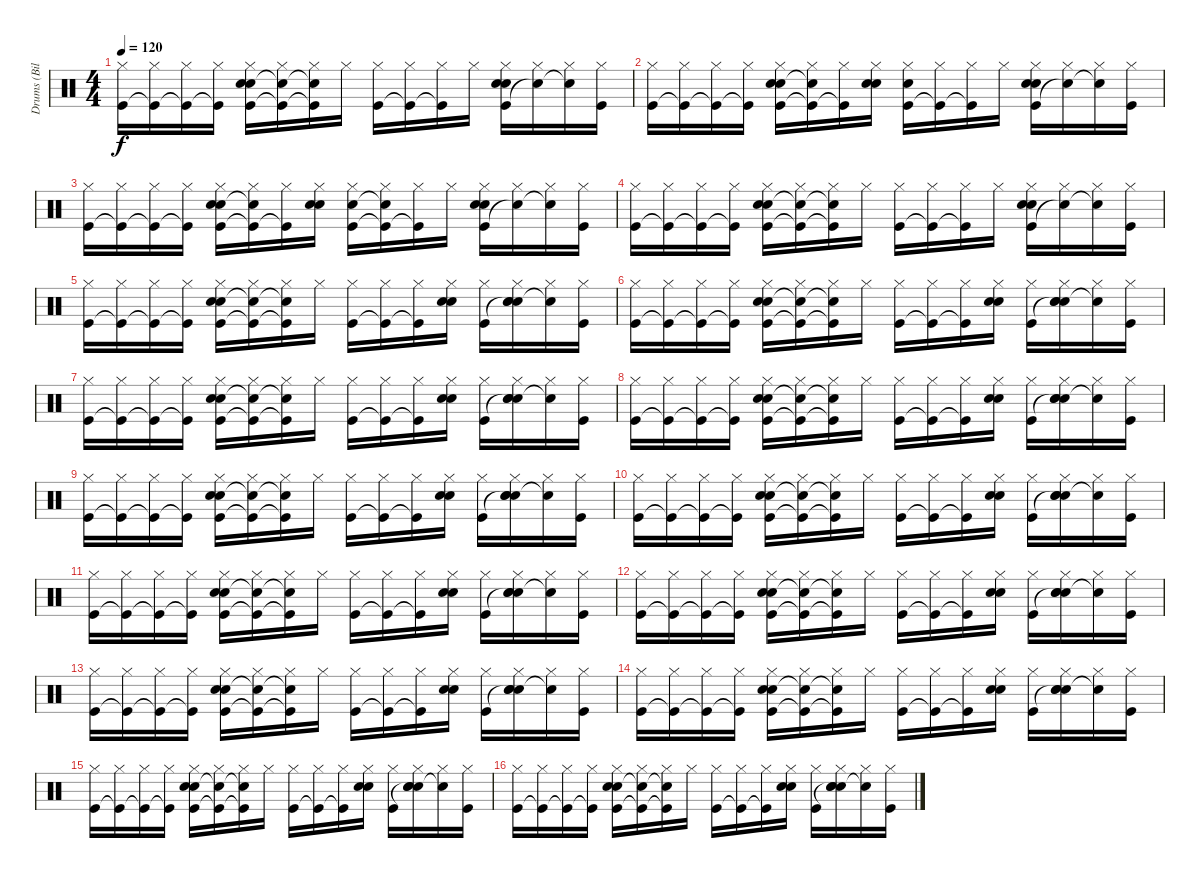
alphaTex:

\track ("Drums (Bilerman)" "Drums (Bil") {instrument percussion}
\staff {score}
\articulation defaults
\ts (4 4)
\tempo 120
\clef neutral
\ks c
("Kick (hit)" "Hi-Hat (closed)").16{dy f} ("Kick (hit)"{t} "Hi-Hat (closed)").16 ("Kick (hit)"{t} "Hi-Hat (closed)").16 ("Kick (hit)"{t} "Hi-Hat (closed)").16 ("Kick (hit)" "Snare (hit) 2" "Snare (hit) 2" "Hi-Hat (closed)").16 ("Kick (hit)"{t} "Snare (hit) 2"{t} "Hi-Hat (closed)").16 ("Kick (hit)"{t} "Snare (hit) 2"{t} "Hi-Hat (closed)").16 "Hi-Hat (closed)".16 ("Kick (hit)" "Hi-Hat (closed)").16 ("Kick (hit)"{t} "Hi-Hat (closed)").16 ("Kick (hit)"{t} "Hi-Hat (closed)").16 "Hi-Hat (closed)".16 ("Kick (hit)" "Snare (hit) 2" "Snare (hit) 2" "Hi-Hat (closed)").16 ("Snare (hit)"{t} "Hi-Hat (closed)").16 ("Snare (hit) 2"{t} "Hi-Hat (closed)").16 ("Kick (hit)" "Hi-Hat (closed)").16 |
("Kick (hit)" "Hi-Hat (closed)").16 ("Kick (hit)"{t} "Hi-Hat (closed)").16 ("Kick (hit)"{t} "Hi-Hat (closed)").16 ("Kick (hit)"{t} "Hi-Hat (closed)").16 ("Kick (hit)" "Snare (hit) 2" "Snare (hit) 2" "Hi-Hat (closed)").16 ("Kick (hit)"{t} "Snare (hit) 2"{t} "Hi-Hat (closed)").16 ("Kick (hit)"{t} "Hi-Hat (closed)").16 ("Snare (hit) 2" "Snare (hit) 2" "Hi-Hat (closed)").16 ("Kick (hit)" "Snare (hit) 2" "Hi-Hat (closed)").16 ("Kick (hit)"{t} "Hi-Hat (closed)").16 ("Kick (hit)"{t} "Hi-Hat (closed)").16 "Hi-Hat (closed)".16 ("Kick (hit)" "Snare (hit) 2" "Snare (hit) 2" "Hi-Hat (closed)").16 ("Snare (hit)"{t} "Hi-Hat (closed)").16 ("Snare (hit) 2"{t} "Hi-Hat (closed)").16 ("Kick (hit)" "Hi-Hat (closed)").16 |
("Kick (hit)" "Hi-Hat (closed)").16 ("Kick (hit)"{t} "Hi-Hat (closed)").16 ("Kick (hit)"{t} "Hi-Hat (closed)").16 ("Kick (hit)"{t} "Hi-Hat (closed)").16 ("Kick (hit)" "Snare (hit) 2" "Snare (hit) 2" "Hi-Hat (closed)").16 ("Kick (hit)"{t} "Snare (hit) 2"{t} "Hi-Hat (closed)").16 ("Kick (hit)"{t} "Hi-Hat (closed)").16 ("Snare (hit) 2" "Snare (hit) 2" "Hi-Hat (closed)").16 ("Kick (hit)" "Snare (hit) 2" "Hi-Hat (closed)").16 ("Kick (hit)"{t} "Snare (hit)"{t} "Hi-Hat (closed)").16 ("Kick (hit)"{t} "Hi-Hat (closed)").16 "Hi-Hat (closed)".16 ("Kick (hit)" "Snare (hit) 2" "Snare (hit) 2" "Hi-Hat (closed)").16 ("Snare (hit)"{t} "Hi-Hat (closed)").16 ("Snare (hit) 2"{t} "Hi-Hat (closed)").16 ("Kick (hit)" "Hi-Hat (closed)").16 |
("Kick (hit)" "Hi-Hat (closed)").16 ("Kick (hit)"{t} "Hi-Hat (closed)").16 ("Kick (hit)"{t} "Hi-Hat (closed)").16 ("Kick (hit)"{t} "Hi-Hat (closed)").16 ("Kick (hit)" "Snare (hit) 2" "Snare (hit) 2" "Hi-Hat (closed)").16 ("Kick (hit)"{t} "Snare (hit) 2"{t} "Hi-Hat (closed)").16 ("Kick (hit)"{t} "Snare (hit) 2"{t} "Hi-Hat (closed)").16 "Hi-Hat (closed)".16 ("Kick (hit)" "Hi-Hat (closed)").16 ("Kick (hit)"{t} "Hi-Hat (closed)").16 ("Kick (hit)"{t} "Hi-Hat (closed)").16 "Hi-Hat (closed)".16 ("Kick (hit)" "Snare (hit) 2" "Snare (hit) 2" "Hi-Hat (closed)").16 ("Snare (hit)"{t} "Hi-Hat (closed)").16 ("Snare (hit) 2"{t} "Hi-Hat (closed)").16 ("Kick (hit)" "Hi-Hat (closed)").16 |
("Kick (hit)" "Hi-Hat (closed)").16 ("Kick (hit)"{t} "Hi-Hat (closed)").16 ("Kick (hit)"{t} "Hi-Hat (closed)").16 ("Kick (hit)"{t} "Hi-Hat (closed)").16 ("Kick (hit)" "Snare (hit) 2" "Snare (hit) 2" "Hi-Hat (closed)").16 ("Kick (hit)"{t} "Snare (hit) 2"{t} "Hi-Hat (closed)").16 ("Kick (hit)"{t} "Snare (hit) 2"{t} "Hi-Hat (closed)").16 "Hi-Hat (closed)".16 ("Kick (hit)" "Hi-Hat (closed)").16 ("Kick (hit)"{t} "Hi-Hat (closed)").16 ("Kick (hit)"{t} "Hi-Hat (closed)").16 ("Snare (hit) 2" "Snare (hit) 2" "Hi-Hat (closed)").16 ("Kick (hit)" "Hi-Hat (closed)").16 ("Snare (hit)"{t} "Snare (hit) 2" "Snare (hit) 2" "Hi-Hat (closed)").16 ("Snare (hit) 2"{t} "Hi-Hat (closed)").16 ("Kick (hit)" "Hi-Hat (closed)").16 |
("Kick (hit)" "Hi-Hat (closed)").16 ("Kick (hit)"{t} "Hi-Hat (closed)").16 ("Kick (hit)"{t} "Hi-Hat (closed)").16 ("Kick (hit)"{t} "Hi-Hat (closed)").16 ("Kick (hit)" "Snare (hit) 2" "Snare (hit) 2" "Hi-Hat (closed)").16 ("Kick (hit)"{t} "Snare (hit) 2"{t} "Hi-Hat (closed)").16 ("Kick (hit)"{t} "Snare (hit) 2"{t} "Hi-Hat (closed)").16 "Hi-Hat (closed)".16 ("Kick (hit)" "Hi-Hat (closed)").16 ("Kick (hit)"{t} "Hi-Hat (closed)").16 ("Kick (hit)"{t} "Hi-Hat (closed)").16 ("Snare (hit) 2" "Snare (hit) 2" "Hi-Hat (closed)").16 ("Kick (hit)" "Hi-Hat (closed)").16 ("Snare (hit)"{t} "Snare (hit) 2" "Snare (hit) 2" "Hi-Hat (closed)").16 ("Snare (hit) 2"{t} "Hi-Hat (closed)").16 ("Kick (hit)" "Hi-Hat (closed)").16 |
("Kick (hit)" "Hi-Hat (closed)").16 ("Kick (hit)"{t} "Hi-Hat (closed)").16 ("Kick (hit)"{t} "Hi-Hat (closed)").16 ("Kick (hit)"{t} "Hi-Hat (closed)").16 ("Kick (hit)" "Snare (hit) 2" "Snare (hit) 2" "Hi-Hat (closed)").16 ("Kick (hit)"{t} "Snare (hit) 2"{t} "Hi-Hat (closed)").16 ("Kick (hit)"{t} "Snare (hit) 2"{t} "Hi-Hat (closed)").16 "Hi-Hat (closed)".16 ("Kick (hit)" "Hi-Hat (closed)").16 ("Kick (hit)"{t} "Hi-Hat (closed)").16 ("Kick (hit)"{t} "Hi-Hat (closed)").16 ("Snare (hit) 2" "Snare (hit) 2" "Hi-Hat (closed)").16 ("Kick (hit)" "Hi-Hat (closed)").16 ("Snare (hit)"{t} "Snare (hit) 2" "Snare (hit) 2" "Hi-Hat (closed)").16 ("Snare (hit) 2"{t} "Hi-Hat (closed)").16 ("Kick (hit)" "Hi-Hat (closed)").16 |
("Kick (hit)" "Hi-Hat (closed)").16 ("Kick (hit)"{t} "Hi-Hat (closed)").16 ("Kick (hit)"{t} "Hi-Hat (closed)").16 ("Kick (hit)"{t} "Hi-Hat (closed)").16 ("Kick (hit)" "Snare (hit) 2" "Snare (hit) 2" "Hi-Hat (closed)").16 ("Kick (hit)"{t} "Snare (hit) 2"{t} "Hi-Hat (closed)").16 ("Kick (hit)"{t} "Snare (hit) 2"{t} "Hi-Hat (closed)").16 "Hi-Hat (closed)".16 ("Kick (hit)" "Hi-Hat (closed)").16 ("Kick (hit)"{t} "Hi-Hat (closed)").16 ("Kick (hit)"{t} "Hi-Hat (closed)").16 ("Snare (hit) 2" "Snare (hit) 2" "Hi-Hat (closed)").16 ("Kick (hit)" "Hi-Hat (closed)").16 ("Snare (hit)"{t} "Snare (hit) 2" "Snare (hit) 2" "Hi-Hat (closed)").16 ("Snare (hit) 2"{t} "Hi-Hat (closed)").16 ("Kick (hit)" "Hi-Hat (closed)").16 |
("Kick (hit)" "Hi-Hat (closed)").16 ("Kick (hit)"{t} "Hi-Hat (closed)").16 ("Kick (hit)"{t} "Hi-Hat (closed)").16 ("Kick (hit)"{t} "Hi-Hat (closed)").16 ("Kick (hit)" "Snare (hit) 2" "Snare (hit) 2" "Hi-Hat (closed)").16 ("Kick (hit)"{t} "Snare (hit) 2"{t} "Hi-Hat (closed)").16 ("Kick (hit)"{t} "Snare (hit) 2"{t} "Hi-Hat (closed)").16 "Hi-Hat (closed)".16 ("Kick (hit)" "Hi-Hat (closed)").16 ("Kick (hit)"{t} "Hi-Hat (closed)").16 ("Kick (hit)"{t} "Hi-Hat (closed)").16 ("Snare (hit) 2" "Snare (hit) 2" "Hi-Hat (closed)").16 ("Kick (hit)" "Hi-Hat (closed)").16 ("Snare (hit)"{t} "Snare (hit) 2" "Snare (hit) 2" "Hi-Hat (closed)").16 ("Snare (hit) 2"{t} "Hi-Hat (closed)").16 ("Kick (hit)" "Hi-Hat (closed)").16 |
("Kick (hit)" "Hi-Hat (closed)").16 ("Kick (hit)"{t} "Hi-Hat (closed)").16 ("Kick (hit)"{t} "Hi-Hat (closed)").16 ("Kick (hit)"{t} "Hi-Hat (closed)").16 ("Kick (hit)" "Snare (hit) 2" "Snare (hit) 2" "Hi-Hat (closed)").16 ("Kick (hit)"{t} "Snare (hit) 2"{t} "Hi-Hat (closed)").16 ("Kick (hit)"{t} "Snare (hit) 2"{t} "Hi-Hat (closed)").16 "Hi-Hat (closed)".16 ("Kick (hit)" "Hi-Hat (closed)").16 ("Kick (hit)"{t} "Hi-Hat (closed)").16 ("Kick (hit)"{t} "Hi-Hat (closed)").16 ("Snare (hit) 2" "Snare (hit) 2" "Hi-Hat (closed)").16 ("Kick (hit)" "Hi-Hat (closed)").16 ("Snare (hit)"{t} "Snare (hit) 2" "Snare (hit) 2" "Hi-Hat (closed)").16 ("Snare (hit) 2"{t} "Hi-Hat (closed)").16 ("Kick (hit)" "Hi-Hat (closed)").16 |
("Kick (hit)" "Hi-Hat (closed)").16 ("Kick (hit)"{t} "Hi-Hat (closed)").16 ("Kick (hit)"{t} "Hi-Hat (closed)").16 ("Kick (hit)"{t} "Hi-Hat (closed)").16 ("Kick (hit)" "Snare (hit) 2" "Snare (hit) 2" "Hi-Hat (closed)").16 ("Kick (hit)"{t} "Snare (hit) 2"{t} "Hi-Hat (closed)").16 ("Kick (hit)"{t} "Snare (hit) 2"{t} "Hi-Hat (closed)").16 "Hi-Hat (closed)".16 ("Kick (hit)" "Hi-Hat (closed)").16 ("Kick (hit)"{t} "Hi-Hat (closed)").16 ("Kick (hit)"{t} "Hi-Hat (closed)").16 ("Snare (hit) 2" "Snare (hit) 2" "Hi-Hat (closed)").16 ("Kick (hit)" "Hi-Hat (closed)").16 ("Snare (hit)"{t} "Snare (hit) 2" "Snare (hit) 2" "Hi-Hat (closed)").16 ("Snare (hit) 2"{t} "Hi-Hat (closed)").16 ("Kick (hit)" "Hi-Hat (closed)").16 |
("Kick (hit)" "Hi-Hat (closed)").16 ("Kick (hit)"{t} "Hi-Hat (closed)").16 ("Kick (hit)"{t} "Hi-Hat (closed)").16 ("Kick (hit)"{t} "Hi-Hat (closed)").16 ("Kick (hit)" "Snare (hit) 2" "Snare (hit) 2" "Hi-Hat (closed)").16 ("Kick (hit)"{t} "Snare (hit) 2"{t} "Hi-Hat (closed)").16 ("Kick (hit)"{t} "Snare (hit) 2"{t} "Hi-Hat (closed)").16 "Hi-Hat (closed)".16 ("Kick (hit)" "Hi-Hat (closed)").16 ("Kick (hit)"{t} "Hi-Hat (closed)").16 ("Kick (hit)"{t} "Hi-Hat (closed)").16 ("Snare (hit) 2" "Snare (hit) 2" "Hi-Hat (closed)").16 ("Kick (hit)" "Hi-Hat (closed)").16 ("Snare (hit)"{t} "Snare (hit) 2" "Snare (hit) 2" "Hi-Hat (closed)").16 ("Snare (hit) 2"{t} "Hi-Hat (closed)").16 ("Kick (hit)" "Hi-Hat (closed)").16 |
("Kick (hit)" "Hi-Hat (closed)").16 ("Kick (hit)"{t} "Hi-Hat (closed)").16 ("Kick (hit)"{t} "Hi-Hat (closed)").16 ("Kick (hit)"{t} "Hi-Hat (closed)").16 ("Kick (hit)" "Snare (hit) 2" "Snare (hit) 2" "Hi-Hat (closed)").16 ("Kick (hit)"{t} "Snare (hit) 2"{t} "Hi-Hat (closed)").16 ("Kick (hit)"{t} "Snare (hit) 2"{t} "Hi-Hat (closed)").16 "Hi-Hat (closed)".16 ("Kick (hit)" "Hi-Hat (closed)").16 ("Kick (hit)"{t} "Hi-Hat (closed)").16 ("Kick (hit)"{t} "Hi-Hat (closed)").16 ("Snare (hit) 2" "Snare (hit) 2" "Hi-Hat (closed)").16 ("Kick (hit)" "Hi-Hat (closed)").16 ("Snare (hit)"{t} "Snare (hit) 2" "Snare (hit) 2" "Hi-Hat (closed)").16 ("Snare (hit) 2"{t} "Hi-Hat (closed)").16 ("Kick (hit)" "Hi-Hat (closed)").16 |
("Kick (hit)" "Hi-Hat (closed)").16 ("Kick (hit)"{t} "Hi-Hat (closed)").16 ("Kick (hit)"{t} "Hi-Hat (closed)").16 ("Kick (hit)"{t} "Hi-Hat (closed)").16 ("Kick (hit)" "Snare (hit) 2" "Snare (hit) 2" "Hi-Hat (closed)").16 ("Kick (hit)"{t} "Snare (hit) 2"{t} "Hi-Hat (closed)").16 ("Kick (hit)"{t} "Snare (hit) 2"{t} "Hi-Hat (closed)").16 "Hi-Hat (closed)".16 ("Kick (hit)" "Hi-Hat (closed)").16 ("Kick (hit)"{t} "Hi-Hat (closed)").16 ("Kick (hit)"{t} "Hi-Hat (closed)").16 ("Snare (hit) 2" "Snare (hit) 2" "Hi-Hat (closed)").16 ("Kick (hit)" "Hi-Hat (closed)").16 ("Snare (hit)"{t} "Snare (hit) 2" "Snare (hit) 2" "Hi-Hat (closed)").16 ("Snare (hit) 2"{t} "Hi-Hat (closed)").16 ("Kick (hit)" "Hi-Hat (closed)").16 |
("Kick (hit)" "Hi-Hat (closed)").16 ("Kick (hit)"{t} "Hi-Hat (closed)").16 ("Kick (hit)"{t} "Hi-Hat (closed)").16 ("Kick (hit)"{t} "Hi-Hat (closed)").16 ("Kick (hit)" "Snare (hit) 2" "Snare (hit) 2" "Hi-Hat (closed)").16 ("Kick (hit)"{t} "Snare (hit) 2"{t} "Hi-Hat (closed)").16 ("Kick (hit)"{t} "Snare (hit) 2"{t} "Hi-Hat (closed)").16 "Hi-Hat (closed)".16 ("Kick (hit)" "Hi-Hat (closed)").16 ("Kick (hit)"{t} "Hi-Hat (closed)").16 ("Kick (hit)"{t} "Hi-Hat (closed)").16 ("Snare (hit) 2" "Snare (hit) 2" "Hi-Hat (closed)").16 ("Kick (hit)" "Hi-Hat (closed)").16 ("Snare (hit)"{t} "Snare (hit) 2" "Snare (hit) 2" "Hi-Hat (closed)").16 ("Snare (hit) 2"{t} "Hi-Hat (closed)").16 ("Kick (hit)" "Hi-Hat (closed)").16 |
("Kick (hit)" "Hi-Hat (closed)").16 ("Kick (hit)"{t} "Hi-Hat (closed)").16 ("Kick (hit)"{t} "Hi-Hat (closed)").16 ("Kick (hit)"{t} "Hi-Hat (closed)").16 ("Kick (hit)" "Snare (hit) 2" "Snare (hit) 2" "Hi-Hat (closed)").16 ("Kick (hit)"{t} "Snare (hit) 2"{t} "Hi-Hat (closed)").16 ("Kick (hit)"{t} "Snare (hit) 2"{t} "Hi-Hat (closed)").16 "Hi-Hat (closed)".16 ("Kick (hit)" "Hi-Hat (closed)").16 ("Kick (hit)"{t} "Hi-Hat (closed)").16 ("Kick (hit)"{t} "Hi-Hat (closed)").16 ("Snare (hit) 2" "Snare (hit) 2" "Hi-Hat (closed)").16 ("Kick (hit)" "Hi-Hat (closed)").16 ("Snare (hit)"{t} "Snare (hit) 2" "Snare (hit) 2" "Hi-Hat (closed)").16 ("Snare (hit) 2"{t} "Hi-Hat (closed)").16 ("Kick (hit)" "Hi-Hat (closed)").16
